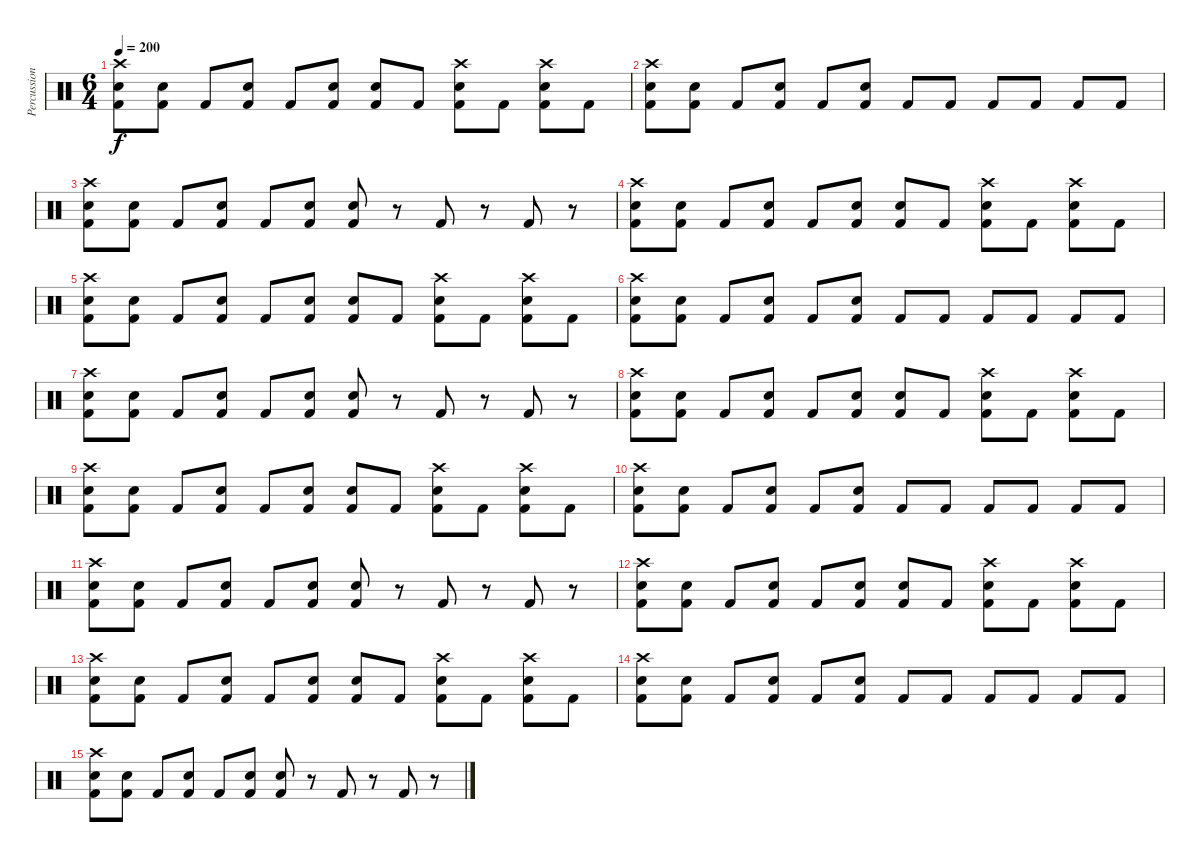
\track ("Percussion" "Percussion") {instrument percussion}
\staff {score}
\articulation defaults
\ts (6 4)
\tempo 200
\clef neutral
\ks c
("Crash high (hit)" "Snare (hit) 2" "Kick (hit) 2").8{dy f} ("Snare (hit) 2" "Kick (hit) 2").8 "Kick (hit) 2".8 ("Snare (hit) 2" "Kick (hit) 2").8 "Kick (hit) 2".8 ("Snare (hit) 2" "Kick (hit) 2").8 ("Snare (hit) 2" "Kick (hit) 2").8 "Kick (hit) 2".8 ("Crash high (hit)" "Snare (hit) 2" "Kick (hit) 2").8 "Kick (hit) 2".8 ("Crash high (hit)" "Snare (hit) 2" "Kick (hit) 2").8 "Kick (hit) 2".8 |
("Crash high (hit)" "Snare (hit) 2" "Kick (hit) 2").8 ("Snare (hit) 2" "Kick (hit) 2").8 "Kick (hit) 2".8 ("Snare (hit) 2" "Kick (hit) 2").8 "Kick (hit) 2".8 ("Snare (hit) 2" "Kick (hit) 2").8 "Kick (hit) 2".8 "Kick (hit) 2".8 "Kick (hit) 2".8 "Kick (hit) 2".8 "Kick (hit) 2".8 "Kick (hit) 2".8 |
("Crash high (hit)" "Snare (hit) 2" "Kick (hit) 2").8 ("Snare (hit) 2" "Kick (hit) 2").8 "Kick (hit) 2".8 ("Snare (hit) 2" "Kick (hit) 2").8 "Kick (hit) 2".8 ("Snare (hit) 2" "Kick (hit) 2").8 ("Snare (hit) 2" "Kick (hit) 2").8 r.8 "Kick (hit) 2".8 r.8 "Kick (hit) 2".8 r.8 |
("Crash high (hit)" "Snare (hit) 2" "Kick (hit) 2").8 ("Snare (hit) 2" "Kick (hit) 2").8 "Kick (hit) 2".8 ("Snare (hit) 2" "Kick (hit) 2").8 "Kick (hit) 2".8 ("Snare (hit) 2" "Kick (hit) 2").8 ("Snare (hit) 2" "Kick (hit) 2").8 "Kick (hit) 2".8 ("Crash high (hit)" "Snare (hit) 2" "Kick (hit) 2").8 "Kick (hit) 2".8 ("Crash high (hit)" "Snare (hit) 2" "Kick (hit) 2").8 "Kick (hit) 2".8 |
("Crash high (hit)" "Snare (hit) 2" "Kick (hit) 2").8 ("Snare (hit) 2" "Kick (hit) 2").8 "Kick (hit) 2".8 ("Snare (hit) 2" "Kick (hit) 2").8 "Kick (hit) 2".8 ("Snare (hit) 2" "Kick (hit) 2").8 ("Snare (hit) 2" "Kick (hit) 2").8 "Kick (hit) 2".8 ("Crash high (hit)" "Snare (hit) 2" "Kick (hit) 2").8 "Kick (hit) 2".8 ("Crash high (hit)" "Snare (hit) 2" "Kick (hit) 2").8 "Kick (hit) 2".8 |
("Crash high (hit)" "Snare (hit) 2" "Kick (hit) 2").8 ("Snare (hit) 2" "Kick (hit) 2").8 "Kick (hit) 2".8 ("Snare (hit) 2" "Kick (hit) 2").8 "Kick (hit) 2".8 ("Snare (hit) 2" "Kick (hit) 2").8 "Kick (hit) 2".8 "Kick (hit) 2".8 "Kick (hit) 2".8 "Kick (hit) 2".8 "Kick (hit) 2".8 "Kick (hit) 2".8 |
("Crash high (hit)" "Snare (hit) 2" "Kick (hit) 2").8 ("Snare (hit) 2" "Kick (hit) 2").8 "Kick (hit) 2".8 ("Snare (hit) 2" "Kick (hit) 2").8 "Kick (hit) 2".8 ("Snare (hit) 2" "Kick (hit) 2").8 ("Snare (hit) 2" "Kick (hit) 2").8 r.8 "Kick (hit) 2".8 r.8 "Kick (hit) 2".8 r.8 |
("Crash high (hit)" "Snare (hit) 2" "Kick (hit) 2").8 ("Snare (hit) 2" "Kick (hit) 2").8 "Kick (hit) 2".8 ("Snare (hit) 2" "Kick (hit) 2").8 "Kick (hit) 2".8 ("Snare (hit) 2" "Kick (hit) 2").8 ("Snare (hit) 2" "Kick (hit) 2").8 "Kick (hit) 2".8 ("Crash high (hit)" "Snare (hit) 2" "Kick (hit) 2").8 "Kick (hit) 2".8 ("Crash high (hit)" "Snare (hit) 2" "Kick (hit) 2").8 "Kick (hit) 2".8 |
("Crash high (hit)" "Snare (hit) 2" "Kick (hit) 2").8 ("Snare (hit) 2" "Kick (hit) 2").8 "Kick (hit) 2".8 ("Snare (hit) 2" "Kick (hit) 2").8 "Kick (hit) 2".8 ("Snare (hit) 2" "Kick (hit) 2").8 ("Snare (hit) 2" "Kick (hit) 2").8 "Kick (hit) 2".8 ("Crash high (hit)" "Snare (hit) 2" "Kick (hit) 2").8 "Kick (hit) 2".8 ("Crash high (hit)" "Snare (hit) 2" "Kick (hit) 2").8 "Kick (hit) 2".8 |
("Crash high (hit)" "Snare (hit) 2" "Kick (hit) 2").8 ("Snare (hit) 2" "Kick (hit) 2").8 "Kick (hit) 2".8 ("Snare (hit) 2" "Kick (hit) 2").8 "Kick (hit) 2".8 ("Snare (hit) 2" "Kick (hit) 2").8 "Kick (hit) 2".8 "Kick (hit) 2".8 "Kick (hit) 2".8 "Kick (hit) 2".8 "Kick (hit) 2".8 "Kick (hit) 2".8 |
("Crash high (hit)" "Snare (hit) 2" "Kick (hit) 2").8 ("Snare (hit) 2" "Kick (hit) 2").8 "Kick (hit) 2".8 ("Snare (hit) 2" "Kick (hit) 2").8 "Kick (hit) 2".8 ("Snare (hit) 2" "Kick (hit) 2").8 ("Snare (hit) 2" "Kick (hit) 2").8 r.8 "Kick (hit) 2".8 r.8 "Kick (hit) 2".8 r.8 |
("Crash high (hit)" "Snare (hit) 2" "Kick (hit) 2").8 ("Snare (hit) 2" "Kick (hit) 2").8 "Kick (hit) 2".8 ("Snare (hit) 2" "Kick (hit) 2").8 "Kick (hit) 2".8 ("Snare (hit) 2" "Kick (hit) 2").8 ("Snare (hit) 2" "Kick (hit) 2").8 "Kick (hit) 2".8 ("Crash high (hit)" "Snare (hit) 2" "Kick (hit) 2").8 "Kick (hit) 2".8 ("Crash high (hit)" "Snare (hit) 2" "Kick (hit) 2").8 "Kick (hit) 2".8 |
("Crash high (hit)" "Snare (hit) 2" "Kick (hit) 2").8 ("Snare (hit) 2" "Kick (hit) 2").8 "Kick (hit) 2".8 ("Snare (hit) 2" "Kick (hit) 2").8 "Kick (hit) 2".8 ("Snare (hit) 2" "Kick (hit) 2").8 ("Snare (hit) 2" "Kick (hit) 2").8 "Kick (hit) 2".8 ("Crash high (hit)" "Snare (hit) 2" "Kick (hit) 2").8 "Kick (hit) 2".8 ("Crash high (hit)" "Snare (hit) 2" "Kick (hit) 2").8 "Kick (hit) 2".8 |
("Crash high (hit)" "Snare (hit) 2" "Kick (hit) 2").8 ("Snare (hit) 2" "Kick (hit) 2").8 "Kick (hit) 2".8 ("Snare (hit) 2" "Kick (hit) 2").8 "Kick (hit) 2".8 ("Snare (hit) 2" "Kick (hit) 2").8 "Kick (hit) 2".8 "Kick (hit) 2".8 "Kick (hit) 2".8 "Kick (hit) 2".8 "Kick (hit) 2".8 "Kick (hit) 2".8 |
("Crash high (hit)" "Snare (hit) 2" "Kick (hit) 2").8 ("Snare (hit) 2" "Kick (hit) 2").8 "Kick (hit) 2".8 ("Snare (hit) 2" "Kick (hit) 2").8 "Kick (hit) 2".8 ("Snare (hit) 2" "Kick (hit) 2").8 ("Snare (hit) 2" "Kick (hit) 2").8 r.8 "Kick (hit) 2".8 r.8 "Kick (hit) 2".8 r.8
